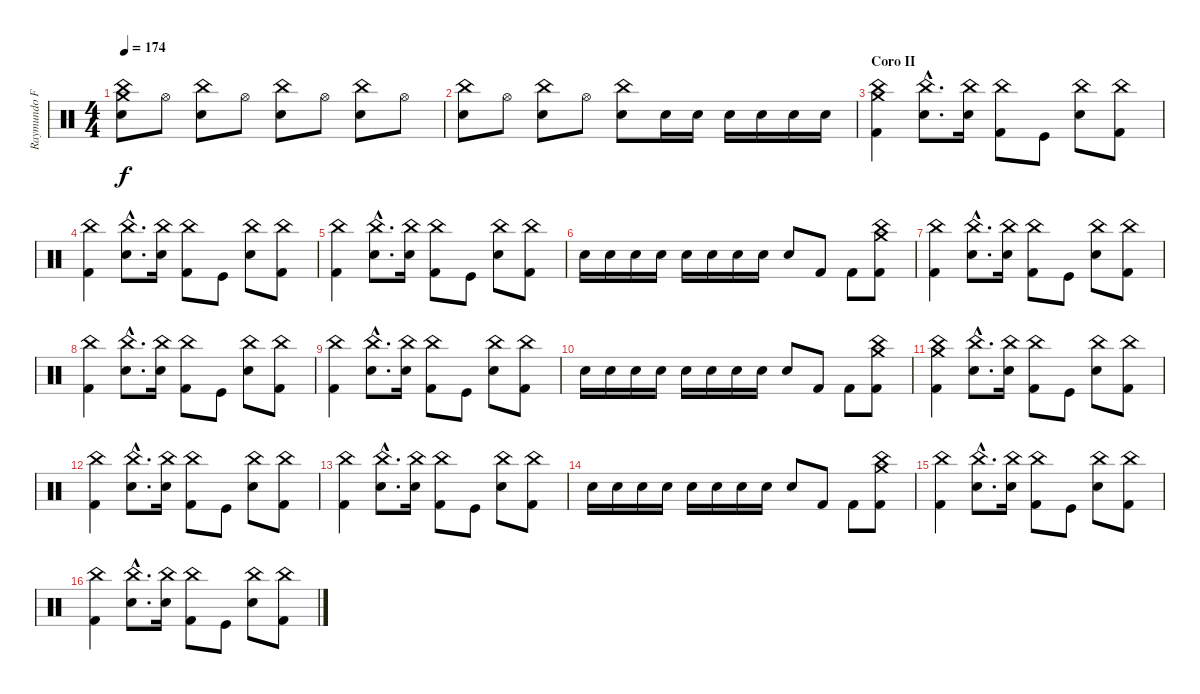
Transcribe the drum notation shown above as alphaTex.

\track ("Raymundo Fajardo (Batería)" "Raymundo F") {instrument percussion}
\staff {score}
\articulation defaults
\ts (4 4)
\tempo 174
\clef neutral
\ks c
("Crash medium (hit)" "Snare (hit) 2" "China (hit)").8{dy f} "Hi-Hat (open)".8 ("Snare (hit) 2" "China (hit)").8 "Hi-Hat (open)".8 ("Snare (hit) 2" "China (hit)").8 "Hi-Hat (open)".8 ("Snare (hit) 2" "China (hit)").8 "Hi-Hat (open)".8 |
("Snare (hit) 2" "China (hit)").8 "Hi-Hat (open)".8 ("Snare (hit) 2" "China (hit)").8 "Hi-Hat (open)".8 ("Snare (hit) 2" "China (hit)").8 "Snare (hit) 2".16 "Snare (hit) 2".16 "Snare (hit) 2".16 "Snare (hit) 2".16 "Snare (hit) 2".16 "Snare (hit) 2".16 |
\section ("" "Coro II")
("Crash medium (hit)" "Kick (hit) 2" "China (hit)").4 ("Snare (hit) 2"{hac} "China (hit)"{hac}).8{d} ("Snare (hit) 2" "China (hit)").16 ("Kick (hit) 2" "China (hit)").8 "Kick (hit)".8 ("China (hit)" "Snare (hit) 2").8 ("Kick (hit) 2" "China (hit)").8 |
("Kick (hit) 2" "China (hit)").4 ("Snare (hit) 2"{hac} "China (hit)"{hac}).8{d} ("Snare (hit) 2" "China (hit)").16 ("Kick (hit) 2" "China (hit)").8 "Kick (hit)".8 ("China (hit)" "Snare (hit) 2").8 ("Kick (hit) 2" "China (hit)").8 |
("Kick (hit) 2" "China (hit)").4 ("Snare (hit) 2"{hac} "China (hit)"{hac}).8{d} ("Snare (hit) 2" "China (hit)").16 ("Kick (hit) 2" "China (hit)").8 "Kick (hit)".8 ("China (hit)" "Snare (hit) 2").8 ("Kick (hit) 2" "China (hit)").8 |
"Snare (hit) 2".16 "Snare (hit) 2".16 "Snare (hit) 2".16 "Snare (hit) 2".16 "Snare (hit) 2".16 "Snare (hit) 2".16 "Snare (hit) 2".16 "Snare (hit) 2".16 "Snare (hit) 2".8 "Kick (hit) 2".8 "Kick (hit) 2".8 ("Crash medium (hit)" "Kick (hit) 2" "China (hit)").8 |
("Kick (hit) 2" "China (hit)").4 ("Snare (hit) 2"{hac} "China (hit)"{hac}).8{d} ("Snare (hit) 2" "China (hit)").16 ("Kick (hit) 2" "China (hit)").8 "Kick (hit)".8 ("China (hit)" "Snare (hit) 2").8 ("Kick (hit) 2" "China (hit)").8 |
("Kick (hit) 2" "China (hit)").4 ("Snare (hit) 2"{hac} "China (hit)"{hac}).8{d} ("Snare (hit) 2" "China (hit)").16 ("Kick (hit) 2" "China (hit)").8 "Kick (hit)".8 ("China (hit)" "Snare (hit) 2").8 ("Kick (hit) 2" "China (hit)").8 |
("Kick (hit) 2" "China (hit)").4 ("Snare (hit) 2"{hac} "China (hit)"{hac}).8{d} ("Snare (hit) 2" "China (hit)").16 ("Kick (hit) 2" "China (hit)").8 "Kick (hit)".8 ("China (hit)" "Snare (hit) 2").8 ("Kick (hit) 2" "China (hit)").8 |
"Snare (hit) 2".16 "Snare (hit) 2".16 "Snare (hit) 2".16 "Snare (hit) 2".16 "Snare (hit) 2".16 "Snare (hit) 2".16 "Snare (hit) 2".16 "Snare (hit) 2".16 "Snare (hit) 2".8 "Kick (hit) 2".8 "Kick (hit) 2".8 ("Crash medium (hit)" "Kick (hit) 2" "China (hit)").8 |
("Crash medium (hit)" "Kick (hit) 2" "China (hit)").4 ("Snare (hit) 2"{hac} "China (hit)"{hac}).8{d} ("Snare (hit) 2" "China (hit)").16 ("Kick (hit) 2" "China (hit)").8 "Kick (hit)".8 ("China (hit)" "Snare (hit) 2").8 ("Kick (hit) 2" "China (hit)").8 |
("Kick (hit) 2" "China (hit)").4 ("Snare (hit) 2"{hac} "China (hit)"{hac}).8{d} ("Snare (hit) 2" "China (hit)").16 ("Kick (hit) 2" "China (hit)").8 "Kick (hit)".8 ("China (hit)" "Snare (hit) 2").8 ("Kick (hit) 2" "China (hit)").8 |
("Kick (hit) 2" "China (hit)").4 ("Snare (hit) 2"{hac} "China (hit)"{hac}).8{d} ("Snare (hit) 2" "China (hit)").16 ("Kick (hit) 2" "China (hit)").8 "Kick (hit)".8 ("China (hit)" "Snare (hit) 2").8 ("Kick (hit) 2" "China (hit)").8 |
"Snare (hit) 2".16 "Snare (hit) 2".16 "Snare (hit) 2".16 "Snare (hit) 2".16 "Snare (hit) 2".16 "Snare (hit) 2".16 "Snare (hit) 2".16 "Snare (hit) 2".16 "Snare (hit) 2".8 "Kick (hit) 2".8 "Kick (hit) 2".8 ("Crash medium (hit)" "Kick (hit) 2" "China (hit)").8 |
("Kick (hit) 2" "China (hit)").4 ("Snare (hit) 2"{hac} "China (hit)"{hac}).8{d} ("Snare (hit) 2" "China (hit)").16 ("Kick (hit) 2" "China (hit)").8 "Kick (hit)".8 ("China (hit)" "Snare (hit) 2").8 ("Kick (hit) 2" "China (hit)").8 |
("Kick (hit) 2" "China (hit)").4 ("Snare (hit) 2"{hac} "China (hit)"{hac}).8{d} ("Snare (hit) 2" "China (hit)").16 ("Kick (hit) 2" "China (hit)").8 "Kick (hit)".8 ("China (hit)" "Snare (hit) 2").8 ("Kick (hit) 2" "China (hit)").8
